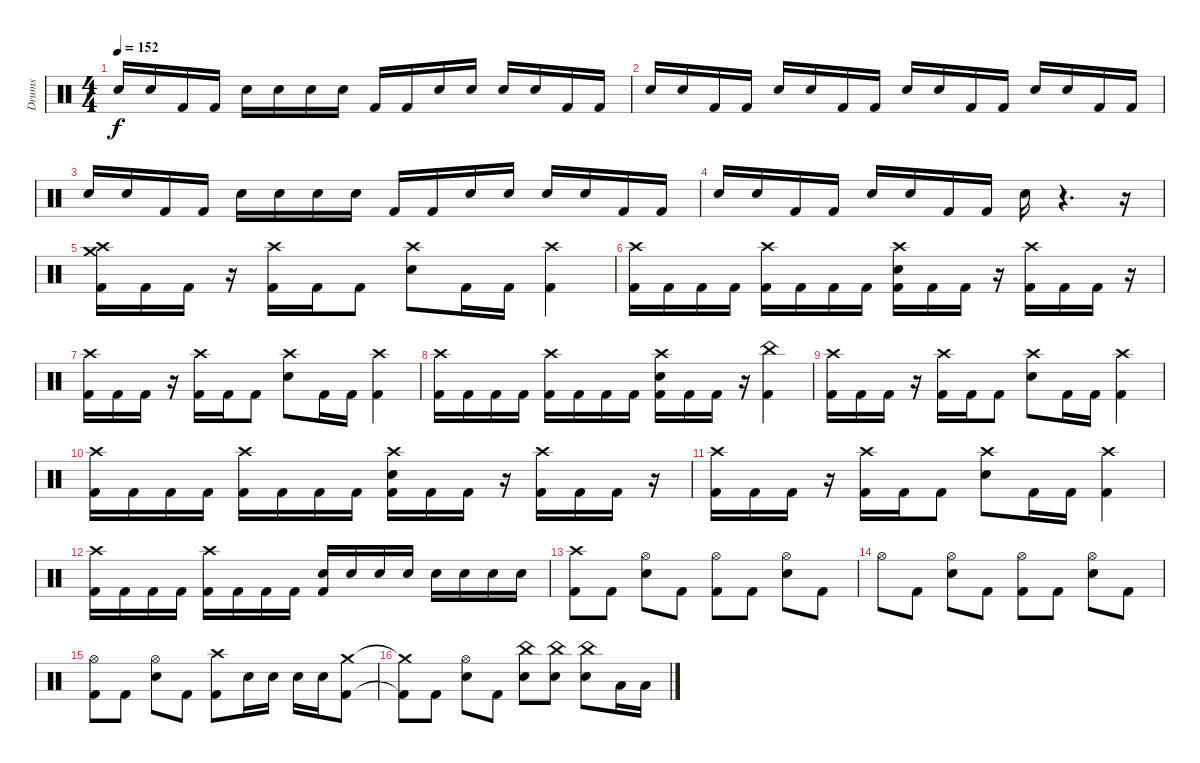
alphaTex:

\track ("Drums" "Drums") {instrument percussion}
\staff {score}
\articulation defaults
\ts (4 4)
\tempo 152
\clef neutral
\ks c "Electric Snare (hit)".16{dy f} "Electric Snare (hit)".16 "Kick (hit) 2".16 "Kick (hit) 2".16 "Electric Snare (hit)".16 "Electric Snare (hit)".16 "Electric Snare (hit)".16 "Electric Snare (hit)".16 "Kick (hit) 2".16 "Kick (hit) 2".16 "Electric Snare (hit)".16 "Electric Snare (hit)".16 "Electric Snare (hit)".16 "Electric Snare (hit)".16 "Kick (hit) 2".16 "Kick (hit) 2".16
|
"Electric Snare (hit)".16 "Electric Snare (hit)".16 "Kick (hit) 2".16 "Kick (hit) 2".16 "Electric Snare (hit)".16 "Electric Snare (hit)".16 "Kick (hit) 2".16 "Kick (hit) 2".16 "Electric Snare (hit)".16 "Electric Snare (hit)".16 "Kick (hit) 2".16 "Kick (hit) 2".16 "Electric Snare (hit)".16 "Electric Snare (hit)".16 "Kick (hit) 2".16 "Kick (hit) 2".16 |
"Electric Snare (hit)".16 "Electric Snare (hit)".16 "Kick (hit) 2".16 "Kick (hit) 2".16 "Electric Snare (hit)".16 "Electric Snare (hit)".16 "Electric Snare (hit)".16 "Electric Snare (hit)".16 "Kick (hit) 2".16 "Kick (hit) 2".16 "Electric Snare (hit)".16 "Electric Snare (hit)".16 "Electric Snare (hit)".16 "Electric Snare (hit)".16 "Kick (hit) 2".16 "Kick (hit) 2".16 |
"Electric Snare (hit)".16 "Electric Snare (hit)".16 "Kick (hit) 2".16 "Kick (hit) 2".16 "Electric Snare (hit)".16 "Electric Snare (hit)".16 "Kick (hit) 2".16 "Kick (hit) 2".16 "Electric Snare (hit)".16 r.4{d} r.16 |
("Crash high (hit)" "Crash medium (hit)" "Kick (hit) 2").16 "Kick (hit) 2".16 "Kick (hit) 2".16 r.16 ("Crash high (hit)" "Kick (hit) 2").16 "Kick (hit) 2".16 "Kick (hit) 2".8 ("Crash high (hit)" "Electric Snare (hit)").8 "Kick (hit) 2".16 "Kick (hit) 2".16 ("Crash high (hit)" "Kick (hit) 2").4 |
("Crash high (hit)" "Kick (hit) 2").16 "Kick (hit) 2".16 "Kick (hit) 2".16 "Kick (hit) 2".16 ("Crash high (hit)" "Kick (hit) 2").16 "Kick (hit) 2".16 "Kick (hit) 2".16 "Kick (hit) 2".16 ("Crash high (hit)" "Electric Snare (hit)" "Kick (hit) 2").16 "Kick (hit) 2".16 "Kick (hit) 2".16 r.16 ("Crash high (hit)" "Kick (hit) 2").16 "Kick (hit) 2".16 "Kick (hit) 2".16 r.16 |
("Crash high (hit)" "Kick (hit) 2").16 "Kick (hit) 2".16 "Kick (hit) 2".16 r.16 ("Crash high (hit)" "Kick (hit) 2").16 "Kick (hit) 2".16 "Kick (hit) 2".8 ("Crash high (hit)" "Electric Snare (hit)").8 "Kick (hit) 2".16 "Kick (hit) 2".16 ("Crash high (hit)" "Kick (hit) 2").4 |
("Crash high (hit)" "Kick (hit) 2").16 "Kick (hit) 2".16 "Kick (hit) 2".16 "Kick (hit) 2".16 ("Crash high (hit)" "Kick (hit) 2").16 "Kick (hit) 2".16 "Kick (hit) 2".16 "Kick (hit) 2".16 ("Crash high (hit)" "Electric Snare (hit)" "Kick (hit) 2").16 "Kick (hit) 2".16 "Kick (hit) 2".16 r.16 ("China (hit)" "Kick (hit) 2").4 |
("Crash high (hit)" "Kick (hit) 2").16 "Kick (hit) 2".16 "Kick (hit) 2".16 r.16 ("Crash high (hit)" "Kick (hit) 2").16 "Kick (hit) 2".16 "Kick (hit) 2".8 ("Crash high (hit)" "Electric Snare (hit)").8 "Kick (hit) 2".16 "Kick (hit) 2".16 ("Crash high (hit)" "Kick (hit) 2").4 |
("Crash high (hit)" "Kick (hit) 2").16 "Kick (hit) 2".16 "Kick (hit) 2".16 "Kick (hit) 2".16 ("Crash high (hit)" "Kick (hit) 2").16 "Kick (hit) 2".16 "Kick (hit) 2".16 "Kick (hit) 2".16 ("Crash high (hit)" "Electric Snare (hit)" "Kick (hit) 2").16 "Kick (hit) 2".16 "Kick (hit) 2".16 r.16 ("Crash high (hit)" "Kick (hit) 2").16 "Kick (hit) 2".16 "Kick (hit) 2".16 r.16 |
("Crash high (hit)" "Kick (hit) 2").16 "Kick (hit) 2".16 "Kick (hit) 2".16 r.16 ("Crash high (hit)" "Kick (hit) 2").16 "Kick (hit) 2".16 "Kick (hit) 2".8 ("Crash high (hit)" "Electric Snare (hit)").8 "Kick (hit) 2".16 "Kick (hit) 2".16 ("Crash high (hit)" "Kick (hit) 2").4 |
("Crash high (hit)" "Kick (hit) 2").16 "Kick (hit) 2".16 "Kick (hit) 2".16 "Kick (hit) 2".16 ("Crash high (hit)" "Kick (hit) 2").16 "Kick (hit) 2".16 "Kick (hit) 2".16 "Kick (hit) 2".16 ("Electric Snare (hit)" "Kick (hit) 2").16 "Electric Snare (hit)".16 "Electric Snare (hit)".16 "Electric Snare (hit)".16 "Electric Snare (hit)".16 "Electric Snare (hit)".16 "Electric Snare (hit)".16 "Electric Snare (hit)".16 |
("Crash high (hit)" "Kick (hit) 2").8 "Kick (hit) 2".8 ("Hi-Hat (open)" "Electric Snare (hit)").8 "Kick (hit) 2".8 ("Hi-Hat (open)" "Kick (hit) 2").8 "Kick (hit) 2".8 ("Hi-Hat (open)" "Electric Snare (hit)").8 "Kick (hit) 2".8 |
"Hi-Hat (open)".8 "Kick (hit) 2".8 ("Hi-Hat (open)" "Electric Snare (hit)").8 "Kick (hit) 2".8 ("Hi-Hat (open)" "Kick (hit) 2").8 "Kick (hit) 2".8 ("Hi-Hat (open)" "Electric Snare (hit)").8 "Kick (hit) 2".8 |
("Hi-Hat (open)" "Kick (hit) 2").8 "Kick (hit) 2".8 ("Hi-Hat (open)" "Electric Snare (hit)").8 "Kick (hit) 2".8 ("Crash high (hit)" "Kick (hit) 2").8 "Electric Snare (hit)".16 "Electric Snare (hit)".16 "Electric Snare (hit)".16 "Electric Snare (hit)".16 ("Crash medium (hit)" "Kick (hit) 2").8 |
("Crash medium (hit)"{t} "Kick (hit) 2"{t}).8 "Kick (hit) 2".8 ("Hi-Hat (open)" "Electric Snare (hit)").8 "Kick (hit) 2".8 ("China (hit)" "Electric Snare (hit)").8 ("China (hit)" "Electric Snare (hit)").8 ("China (hit)" "Electric Snare (hit)").8 "Low Tom (hit)".16 "Low Tom (hit)".16
